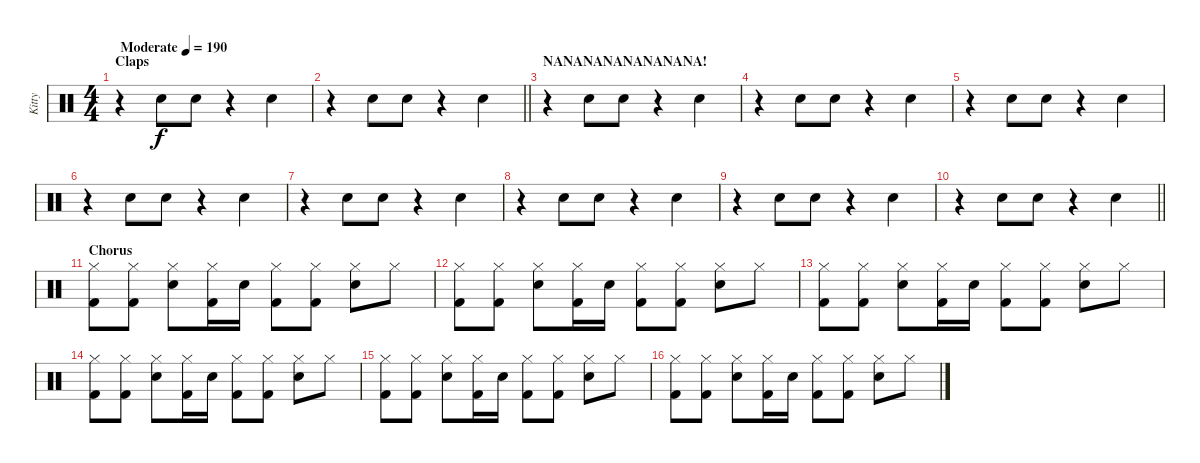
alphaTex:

\track ("Kitty" "Kitty") {instrument percussion}
\staff {score}
\articulation defaults
\ts (4 4)
\section ("" "Claps")
\tempo (190 "Moderate")
\clef neutral
\ks c
r.4{dy f} "Hand Clap (hit)".8 "Hand Clap (hit)".8 r.4 "Hand Clap (hit)".4 |
\barLineRight lightlight
r.4 "Hand Clap (hit)".8 "Hand Clap (hit)".8 r.4 "Hand Clap (hit)".4 |
\section ("" "NANANANANANANANA!")
r.4 "Hand Clap (hit)".8 "Hand Clap (hit)".8 r.4 "Hand Clap (hit)".4 |
r.4 "Hand Clap (hit)".8 "Hand Clap (hit)".8 r.4 "Hand Clap (hit)".4 |
r.4 "Hand Clap (hit)".8 "Hand Clap (hit)".8 r.4 "Hand Clap (hit)".4 |
r.4 "Hand Clap (hit)".8 "Hand Clap (hit)".8 r.4 "Hand Clap (hit)".4 |
r.4 "Hand Clap (hit)".8 "Hand Clap (hit)".8 r.4 "Hand Clap (hit)".4 |
r.4 "Hand Clap (hit)".8 "Hand Clap (hit)".8 r.4 "Hand Clap (hit)".4 |
r.4 "Hand Clap (hit)".8 "Hand Clap (hit)".8 r.4 "Hand Clap (hit)".4 |
\barLineRight lightlight
r.4 "Hand Clap (hit)".8 "Hand Clap (hit)".8 r.4 "Hand Clap (hit)".4 |
\section ("" "Chorus")
("Hi-Hat (closed)" "Kick (hit) 2").8 ("Hi-Hat (closed)" "Kick (hit) 2").8 ("Hi-Hat (closed)" "Snare (hit) 2").8 ("Hi-Hat (closed)" "Kick (hit) 2").16 "Snare (hit) 2".16 ("Hi-Hat (closed)" "Kick (hit) 2").8 ("Hi-Hat (closed)" "Kick (hit) 2").8 ("Hi-Hat (closed)" "Snare (hit) 2").8 "Hi-Hat (closed)".8 |
("Hi-Hat (closed)" "Kick (hit) 2").8 ("Hi-Hat (closed)" "Kick (hit) 2").8 ("Hi-Hat (closed)" "Snare (hit) 2").8 ("Hi-Hat (closed)" "Kick (hit) 2").16 "Snare (hit) 2".16 ("Hi-Hat (closed)" "Kick (hit) 2").8 ("Hi-Hat (closed)" "Kick (hit) 2").8 ("Hi-Hat (closed)" "Snare (hit) 2").8 "Hi-Hat (closed)".8 |
("Hi-Hat (closed)" "Kick (hit) 2").8 ("Hi-Hat (closed)" "Kick (hit) 2").8 ("Hi-Hat (closed)" "Snare (hit) 2").8 ("Hi-Hat (closed)" "Kick (hit) 2").16 "Snare (hit) 2".16 ("Hi-Hat (closed)" "Kick (hit) 2").8 ("Hi-Hat (closed)" "Kick (hit) 2").8 ("Hi-Hat (closed)" "Snare (hit) 2").8 "Hi-Hat (closed)".8 |
("Hi-Hat (closed)" "Kick (hit) 2").8 ("Hi-Hat (closed)" "Kick (hit) 2").8 ("Hi-Hat (closed)" "Snare (hit) 2").8 ("Hi-Hat (closed)" "Kick (hit) 2").16 "Snare (hit) 2".16 ("Hi-Hat (closed)" "Kick (hit) 2").8 ("Hi-Hat (closed)" "Kick (hit) 2").8 ("Hi-Hat (closed)" "Snare (hit) 2").8 "Hi-Hat (closed)".8 |
("Hi-Hat (closed)" "Kick (hit) 2").8 ("Hi-Hat (closed)" "Kick (hit) 2").8 ("Hi-Hat (closed)" "Snare (hit) 2").8 ("Hi-Hat (closed)" "Kick (hit) 2").16 "Snare (hit) 2".16 ("Hi-Hat (closed)" "Kick (hit) 2").8 ("Hi-Hat (closed)" "Kick (hit) 2").8 ("Hi-Hat (closed)" "Snare (hit) 2").8 "Hi-Hat (closed)".8 |
("Hi-Hat (closed)" "Kick (hit) 2").8 ("Hi-Hat (closed)" "Kick (hit) 2").8 ("Hi-Hat (closed)" "Snare (hit) 2").8 ("Hi-Hat (closed)" "Kick (hit) 2").16 "Snare (hit) 2".16 ("Hi-Hat (closed)" "Kick (hit) 2").8 ("Hi-Hat (closed)" "Kick (hit) 2").8 ("Hi-Hat (closed)" "Snare (hit) 2").8 "Hi-Hat (closed)".8
